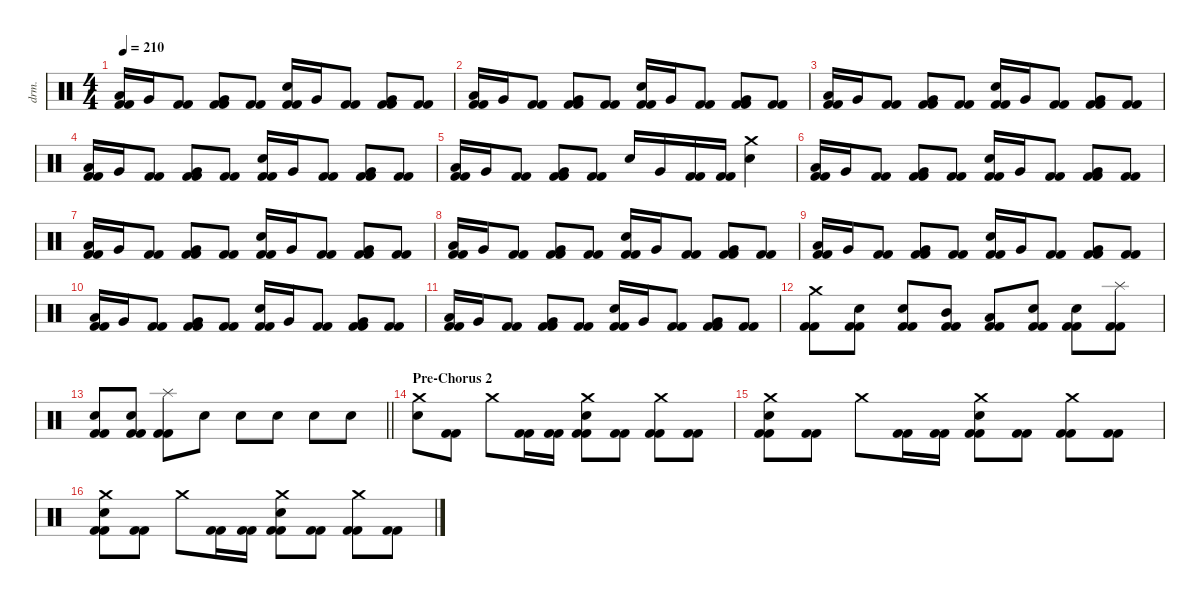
\defaultSystemsLayout 4
\hideDynamics
\bracketExtendMode nobrackets
\otherSystemsTrackNameOrientation horizontal
\track ("Chris Adler" "drm.") {instrument percussion}
\staff {score}
\articulation defaults
\ts (4 4)
\tempo 210
\clef neutral
\ks c
("Low Tom (hit)" "Kick (hit) 2" "Kick (hit) 2").16{dy f} "Very Low Tom (hit)".16 ("Kick (hit) 2" "Kick (hit) 2").8 ("Very Low Tom (hit)" "Kick (hit) 2" "Kick (hit) 2").8 ("Kick (hit) 2" "Kick (hit) 2").8 ("Snare (hit) 2" "Kick (hit) 2" "Kick (hit) 2").16 "Very Low Tom (hit)".16 ("Kick (hit) 2" "Kick (hit) 2").8 ("Very Low Tom (hit)" "Kick (hit) 2" "Kick (hit) 2").8 ("Kick (hit) 2" "Kick (hit) 2").8 |
("Low Tom (hit)" "Kick (hit) 2" "Kick (hit) 2").16 "Very Low Tom (hit)".16 ("Kick (hit) 2" "Kick (hit) 2").8 ("Very Low Tom (hit)" "Kick (hit) 2" "Kick (hit) 2").8 ("Kick (hit) 2" "Kick (hit) 2").8 ("Snare (hit) 2" "Kick (hit) 2" "Kick (hit) 2").16 "Very Low Tom (hit)".16 ("Kick (hit) 2" "Kick (hit) 2").8 ("Very Low Tom (hit)" "Kick (hit) 2" "Kick (hit) 2").8 ("Kick (hit) 2" "Kick (hit) 2").8 |
("Low Tom (hit)" "Kick (hit) 2" "Kick (hit) 2").16 "Very Low Tom (hit)".16 ("Kick (hit) 2" "Kick (hit) 2").8 ("Very Low Tom (hit)" "Kick (hit) 2" "Kick (hit) 2").8 ("Kick (hit) 2" "Kick (hit) 2").8 ("Snare (hit) 2" "Kick (hit) 2" "Kick (hit) 2").16 "Very Low Tom (hit)".16 ("Kick (hit) 2" "Kick (hit) 2").8 ("Very Low Tom (hit)" "Kick (hit) 2" "Kick (hit) 2").8 ("Kick (hit) 2" "Kick (hit) 2").8 |
("Low Tom (hit)" "Kick (hit) 2" "Kick (hit) 2").16 "Very Low Tom (hit)".16 ("Kick (hit) 2" "Kick (hit) 2").8 ("Very Low Tom (hit)" "Kick (hit) 2" "Kick (hit) 2").8 ("Kick (hit) 2" "Kick (hit) 2").8 ("Snare (hit) 2" "Kick (hit) 2" "Kick (hit) 2").16 "Very Low Tom (hit)".16 ("Kick (hit) 2" "Kick (hit) 2").8 ("Very Low Tom (hit)" "Kick (hit) 2" "Kick (hit) 2").8 ("Kick (hit) 2" "Kick (hit) 2").8 |
("Low Tom (hit)" "Kick (hit) 2" "Kick (hit) 2").16 "Very Low Tom (hit)".16 ("Kick (hit) 2" "Kick (hit) 2").8 ("Very Low Tom (hit)" "Kick (hit) 2" "Kick (hit) 2").8 ("Kick (hit) 2" "Kick (hit) 2").8 "Snare (hit) 2".16 "Very Low Tom (hit)".16 ("Kick (hit) 2" "Kick (hit) 2").16 ("Kick (hit) 2" "Kick (hit) 2").16 ("Crash medium (hit)" "Snare (hit) 2").4 |
("Low Tom (hit)" "Kick (hit) 2" "Kick (hit) 2").16 "Very Low Tom (hit)".16 ("Kick (hit) 2" "Kick (hit) 2").8 ("Very Low Tom (hit)" "Kick (hit) 2" "Kick (hit) 2").8 ("Kick (hit) 2" "Kick (hit) 2").8 ("Snare (hit) 2" "Kick (hit) 2" "Kick (hit) 2").16 "Very Low Tom (hit)".16 ("Kick (hit) 2" "Kick (hit) 2").8 ("Very Low Tom (hit)" "Kick (hit) 2" "Kick (hit) 2").8 ("Kick (hit) 2" "Kick (hit) 2").8 |
("Low Tom (hit)" "Kick (hit) 2" "Kick (hit) 2").16 "Very Low Tom (hit)".16 ("Kick (hit) 2" "Kick (hit) 2").8 ("Very Low Tom (hit)" "Kick (hit) 2" "Kick (hit) 2").8 ("Kick (hit) 2" "Kick (hit) 2").8 ("Snare (hit) 2" "Kick (hit) 2" "Kick (hit) 2").16 "Very Low Tom (hit)".16 ("Kick (hit) 2" "Kick (hit) 2").8 ("Very Low Tom (hit)" "Kick (hit) 2" "Kick (hit) 2").8 ("Kick (hit) 2" "Kick (hit) 2").8 |
("Low Tom (hit)" "Kick (hit) 2" "Kick (hit) 2").16 "Very Low Tom (hit)".16 ("Kick (hit) 2" "Kick (hit) 2").8 ("Very Low Tom (hit)" "Kick (hit) 2" "Kick (hit) 2").8 ("Kick (hit) 2" "Kick (hit) 2").8 ("Snare (hit) 2" "Kick (hit) 2" "Kick (hit) 2").16 "Very Low Tom (hit)".16 ("Kick (hit) 2" "Kick (hit) 2").8 ("Very Low Tom (hit)" "Kick (hit) 2" "Kick (hit) 2").8 ("Kick (hit) 2" "Kick (hit) 2").8 |
("Low Tom (hit)" "Kick (hit) 2" "Kick (hit) 2").16 "Very Low Tom (hit)".16 ("Kick (hit) 2" "Kick (hit) 2").8 ("Very Low Tom (hit)" "Kick (hit) 2" "Kick (hit) 2").8 ("Kick (hit) 2" "Kick (hit) 2").8 ("Snare (hit) 2" "Kick (hit) 2" "Kick (hit) 2").16 "Very Low Tom (hit)".16 ("Kick (hit) 2" "Kick (hit) 2").8 ("Very Low Tom (hit)" "Kick (hit) 2" "Kick (hit) 2").8 ("Kick (hit) 2" "Kick (hit) 2").8 |
("Low Tom (hit)" "Kick (hit) 2" "Kick (hit) 2").16 "Very Low Tom (hit)".16 ("Kick (hit) 2" "Kick (hit) 2").8 ("Very Low Tom (hit)" "Kick (hit) 2" "Kick (hit) 2").8 ("Kick (hit) 2" "Kick (hit) 2").8 ("Snare (hit) 2" "Kick (hit) 2" "Kick (hit) 2").16 "Very Low Tom (hit)".16 ("Kick (hit) 2" "Kick (hit) 2").8 ("Very Low Tom (hit)" "Kick (hit) 2" "Kick (hit) 2").8 ("Kick (hit) 2" "Kick (hit) 2").8 |
("Low Tom (hit)" "Kick (hit) 2" "Kick (hit) 2").16 "Very Low Tom (hit)".16 ("Kick (hit) 2" "Kick (hit) 2").8 ("Very Low Tom (hit)" "Kick (hit) 2" "Kick (hit) 2").8 ("Kick (hit) 2" "Kick (hit) 2").8 ("Snare (hit) 2" "Kick (hit) 2" "Kick (hit) 2").16 "Very Low Tom (hit)".16 ("Kick (hit) 2" "Kick (hit) 2").8 ("Very Low Tom (hit)" "Kick (hit) 2" "Kick (hit) 2").8 ("Kick (hit) 2" "Kick (hit) 2").8 |
("Crash medium (hit)" "Kick (hit) 2" "Kick (hit) 2").8 ("Snare (hit) 2" "Kick (hit) 2" "Kick (hit) 2").8 ("Snare (hit) 2" "Kick (hit) 2" "Kick (hit) 2").8 ("Mid Tom (hit)" "Kick (hit) 2" "Kick (hit) 2").8 ("Low Tom (hit)" "Kick (hit) 2" "Kick (hit) 2").8 ("Snare (hit) 2" "Kick (hit) 2" "Kick (hit) 2").8 ("Snare (hit) 2" "Kick (hit) 2" "Kick (hit) 2").8 ("Splash (hit)" "Kick (hit) 2" "Kick (hit) 2").8 |
\barLineRight lightlight
("Snare (hit) 2" "Kick (hit) 2" "Kick (hit) 2").8 ("Snare (hit) 2" "Kick (hit) 2" "Kick (hit) 2").8 ("Splash (hit)" "Kick (hit) 2" "Kick (hit) 2").8 "Snare (hit) 2".8 "Snare (hit) 2".8 "Snare (hit) 2".8 "Snare (hit) 2".8 "Snare (hit) 2".8 |
\section ("" "Pre-Chorus 2")
("Crash medium (hit)" "Snare (hit) 2").8 ("Kick (hit) 2" "Kick (hit) 2").8 "Crash medium (hit)".8 ("Kick (hit) 2" "Kick (hit) 2").16 ("Kick (hit) 2" "Kick (hit) 2").16 ("Crash medium (hit)" "Snare (hit) 2" "Kick (hit) 2" "Kick (hit) 2").8 ("Kick (hit) 2" "Kick (hit) 2").8 ("Crash medium (hit)" "Kick (hit) 2" "Kick (hit) 2").8 ("Kick (hit) 2" "Kick (hit) 2").8 |
("Crash medium (hit)" "Snare (hit) 2" "Kick (hit) 2" "Kick (hit) 2").8 ("Kick (hit) 2" "Kick (hit) 2").8 "Crash medium (hit)".8 ("Kick (hit) 2" "Kick (hit) 2").16 ("Kick (hit) 2" "Kick (hit) 2").16 ("Crash medium (hit)" "Snare (hit) 2" "Kick (hit) 2" "Kick (hit) 2").8 ("Kick (hit) 2" "Kick (hit) 2").8 ("Crash medium (hit)" "Kick (hit) 2" "Kick (hit) 2").8 ("Kick (hit) 2" "Kick (hit) 2").8 |
("Crash medium (hit)" "Snare (hit) 2" "Kick (hit) 2" "Kick (hit) 2").8 ("Kick (hit) 2" "Kick (hit) 2").8 "Crash medium (hit)".8 ("Kick (hit) 2" "Kick (hit) 2").16 ("Kick (hit) 2" "Kick (hit) 2").16 ("Crash medium (hit)" "Snare (hit) 2" "Kick (hit) 2" "Kick (hit) 2").8 ("Kick (hit) 2" "Kick (hit) 2").8 ("Crash medium (hit)" "Kick (hit) 2" "Kick (hit) 2").8 ("Kick (hit) 2" "Kick (hit) 2").8
